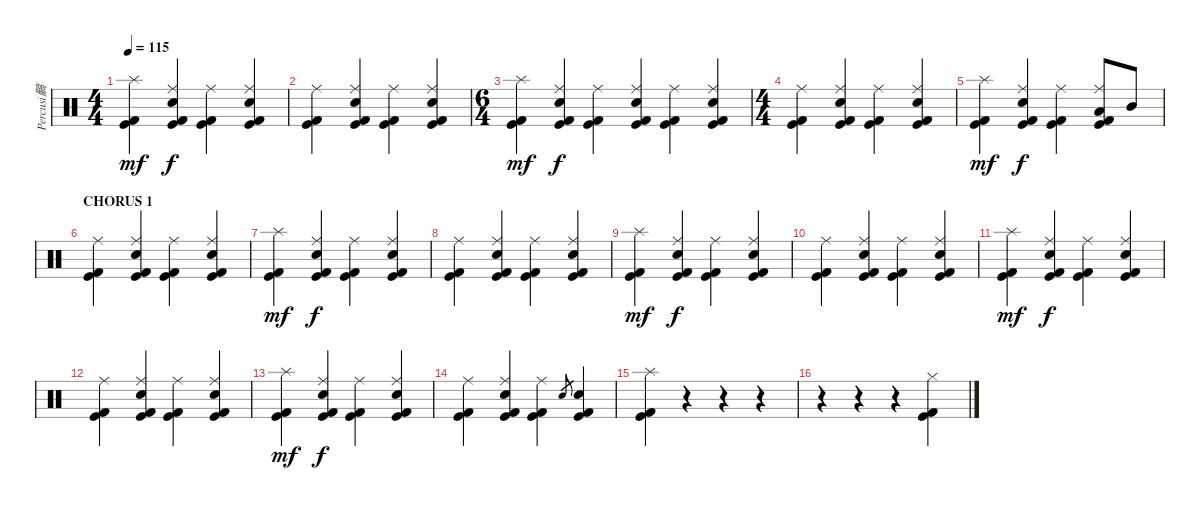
\track ("Percusi髇" "Percusi髇") {instrument percussion}
\staff {score}
\articulation defaults
\ts (4 4)
\tempo 115
\clef neutral
\ks c
("Splash (hit)" "Kick (hit) 2" "Kick (hit)").4{dy mf} ("Ride (middle)" "Electric Snare (hit)" "Kick (hit) 2" "Kick (hit)").4{dy f} ("Ride (middle)" "Kick (hit) 2" "Kick (hit)").4 ("Ride (middle)" "Electric Snare (hit)" "Kick (hit) 2" "Kick (hit)").4 |
("Ride (middle)" "Kick (hit) 2" "Kick (hit)").4 ("Ride (middle)" "Electric Snare (hit)" "Kick (hit) 2" "Kick (hit)").4 ("Ride (middle)" "Kick (hit) 2" "Kick (hit)").4 ("Ride (middle)" "Electric Snare (hit)" "Kick (hit) 2" "Kick (hit)").4 |
\ts (6 4)
("Splash (hit)" "Kick (hit) 2" "Kick (hit)").4{dy mf} ("Ride (middle)" "Electric Snare (hit)" "Kick (hit) 2" "Kick (hit)").4{dy f} ("Ride (middle)" "Kick (hit) 2" "Kick (hit)").4 ("Ride (middle)" "Electric Snare (hit)" "Kick (hit) 2" "Kick (hit)").4 ("Ride (middle)" "Kick (hit) 2" "Kick (hit)").4 ("Ride (middle)" "Electric Snare (hit)" "Kick (hit) 2" "Kick (hit)").4 |
\ts (4 4)
("Ride (middle)" "Kick (hit) 2" "Kick (hit)").4 ("Ride (middle)" "Electric Snare (hit)" "Kick (hit) 2" "Kick (hit)").4 ("Ride (middle)" "Kick (hit) 2" "Kick (hit)").4 ("Ride (middle)" "Electric Snare (hit)" "Kick (hit) 2" "Kick (hit)").4 |
("Splash (hit)" "Kick (hit) 2" "Kick (hit)").4{dy mf} ("Ride (middle)" "Electric Snare (hit)" "Kick (hit) 2" "Kick (hit)").4{dy f} ("Ride (middle)" "Kick (hit) 2" "Kick (hit)").4 ("Ride (middle)" "Low Tom (hit)" "Kick (hit) 2" "Kick (hit)").8 "Mid Tom (hit)".8 |
\section ("" "CHORUS 1")
("Ride (middle)" "Kick (hit) 2" "Kick (hit)").4 ("Ride (middle)" "Electric Snare (hit)" "Kick (hit) 2" "Kick (hit)").4 ("Ride (middle)" "Kick (hit) 2" "Kick (hit)").4 ("Ride (middle)" "Electric Snare (hit)" "Kick (hit) 2" "Kick (hit)").4 |
("Splash (hit)" "Kick (hit) 2" "Kick (hit)").4{dy mf} ("Ride (middle)" "Electric Snare (hit)" "Kick (hit) 2" "Kick (hit)").4{dy f} ("Ride (middle)" "Kick (hit) 2" "Kick (hit)").4 ("Ride (middle)" "Electric Snare (hit)" "Kick (hit) 2" "Kick (hit)").4 |
("Ride (middle)" "Kick (hit) 2" "Kick (hit)").4 ("Ride (middle)" "Electric Snare (hit)" "Kick (hit) 2" "Kick (hit)").4 ("Ride (middle)" "Kick (hit) 2" "Kick (hit)").4 ("Ride (middle)" "Electric Snare (hit)" "Kick (hit) 2" "Kick (hit)").4 |
("Splash (hit)" "Kick (hit) 2" "Kick (hit)").4{dy mf} ("Ride (middle)" "Electric Snare (hit)" "Kick (hit) 2" "Kick (hit)").4{dy f} ("Ride (middle)" "Kick (hit) 2" "Kick (hit)").4 ("Ride (middle)" "Electric Snare (hit)" "Kick (hit) 2" "Kick (hit)").4 |
("Ride (middle)" "Kick (hit) 2" "Kick (hit)").4 ("Ride (middle)" "Electric Snare (hit)" "Kick (hit) 2" "Kick (hit)").4 ("Ride (middle)" "Kick (hit) 2" "Kick (hit)").4 ("Ride (middle)" "Electric Snare (hit)" "Kick (hit) 2" "Kick (hit)").4 |
("Splash (hit)" "Kick (hit) 2" "Kick (hit)").4{dy mf} ("Ride (middle)" "Electric Snare (hit)" "Kick (hit) 2" "Kick (hit)").4{dy f} ("Ride (middle)" "Kick (hit) 2" "Kick (hit)").4 ("Ride (middle)" "Electric Snare (hit)" "Kick (hit) 2" "Kick (hit)").4 |
("Ride (middle)" "Kick (hit) 2" "Kick (hit)").4 ("Ride (middle)" "Electric Snare (hit)" "Kick (hit) 2" "Kick (hit)").4 ("Ride (middle)" "Kick (hit) 2" "Kick (hit)").4 ("Ride (middle)" "Electric Snare (hit)" "Kick (hit) 2" "Kick (hit)").4 |
("Splash (hit)" "Kick (hit) 2" "Kick (hit)").4{dy mf} ("Ride (middle)" "Electric Snare (hit)" "Kick (hit) 2" "Kick (hit)").4{dy f} ("Ride (middle)" "Kick (hit) 2" "Kick (hit)").4 ("Ride (middle)" "Electric Snare (hit)" "Kick (hit) 2" "Kick (hit)").4 |
("Ride (middle)" "Kick (hit) 2" "Kick (hit)").4 ("Ride (middle)" "Electric Snare (hit)" "Kick (hit) 2" "Kick (hit)").4 ("Ride (middle)" "Kick (hit) 2" "Kick (hit)").4 "Electric Snare (hit)".8{gr} ("Electric Snare (hit)" "Kick (hit) 2" "Kick (hit)").4 |
("Splash (hit)" "Kick (hit) 2" "Kick (hit)").4 r.4 r.4 r.4 |
r.4 r.4 r.4 ("Hi-Hat (closed)" "Kick (hit) 2" "Kick (hit)").4
